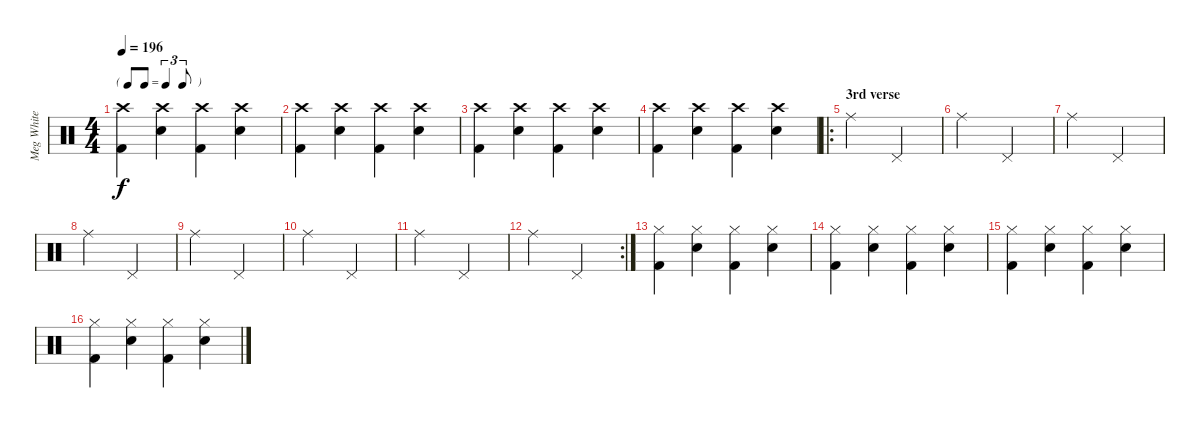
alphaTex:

\track ("Meg White" "Meg White") {instrument percussion}
\staff {score}
\articulation defaults
\ts (4 4)
\tf triplet8th
\tempo 196
\clef neutral
\ks c
("Crash high (hit)" "Kick (hit) 2").4{dy f} ("Crash high (hit)" "Electric Snare (hit)").4 ("Crash high (hit)" "Kick (hit) 2").4 ("Crash high (hit)" "Electric Snare (hit)").4 |
("Crash high (hit)" "Kick (hit) 2").4 ("Crash high (hit)" "Electric Snare (hit)").4 ("Crash high (hit)" "Kick (hit) 2").4 ("Crash high (hit)" "Electric Snare (hit)").4 |
("Crash high (hit)" "Kick (hit) 2").4 ("Crash high (hit)" "Electric Snare (hit)").4 ("Crash high (hit)" "Kick (hit) 2").4 ("Crash high (hit)" "Electric Snare (hit)").4 |
("Crash high (hit)" "Kick (hit) 2").4 ("Crash high (hit)" "Electric Snare (hit)").4 ("Crash high (hit)" "Kick (hit) 2").4 ("Crash high (hit)" "Electric Snare (hit)").4 |
\ro
\section ("" "3rd verse")
"Ride (middle)".2 "Pedal Hi-Hat (hit)".2 |
"Ride (middle)".2 "Pedal Hi-Hat (hit)".2 |
"Ride (middle)".2 "Pedal Hi-Hat (hit)".2 |
"Ride (middle)".2 "Pedal Hi-Hat (hit)".2 |
"Ride (middle)".2 "Pedal Hi-Hat (hit)".2 |
"Ride (middle)".2 "Pedal Hi-Hat (hit)".2 |
"Ride (middle)".2 "Pedal Hi-Hat (hit)".2 |
\rc 2 "Ride (middle)".2 "Pedal Hi-Hat (hit)".2
|
("Hi-Hat (closed)" "Kick (hit) 2").4 ("Hi-Hat (closed)" "Electric Snare (hit)").4 ("Hi-Hat (closed)" "Kick (hit) 2").4 ("Hi-Hat (closed)" "Electric Snare (hit)").4 |
("Hi-Hat (closed)" "Kick (hit) 2").4 ("Hi-Hat (closed)" "Electric Snare (hit)").4 ("Hi-Hat (closed)" "Kick (hit) 2").4 ("Hi-Hat (closed)" "Electric Snare (hit)").4 |
("Hi-Hat (closed)" "Kick (hit) 2").4 ("Hi-Hat (closed)" "Electric Snare (hit)").4 ("Hi-Hat (closed)" "Kick (hit) 2").4 ("Hi-Hat (closed)" "Electric Snare (hit)").4 |
("Hi-Hat (closed)" "Kick (hit) 2").4 ("Hi-Hat (closed)" "Electric Snare (hit)").4 ("Hi-Hat (closed)" "Kick (hit) 2").4 ("Hi-Hat (closed)" "Electric Snare (hit)").4
